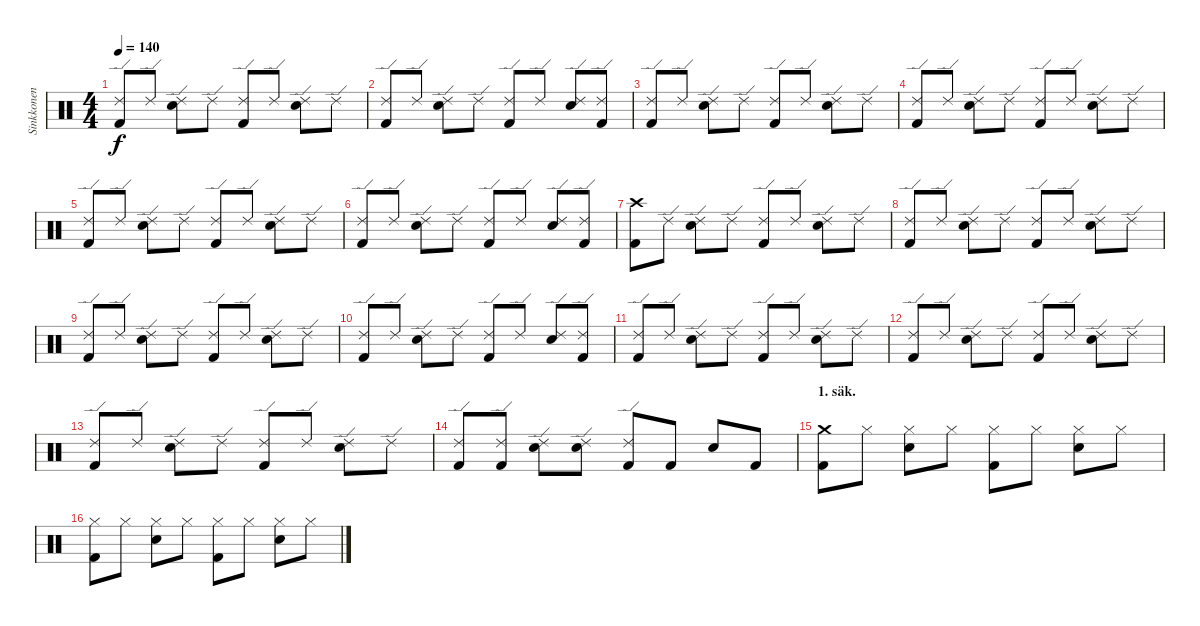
\track ("Sinkkonen" "Sinkkonen") {instrument percussion}
\staff {score}
\articulation defaults
\ts (4 4)
\tempo 140
\clef neutral
\ks c
("Kick (hit) 2" "Ride (edge) 2").8{dy f} "Ride (edge) 2".8 ("Ride (edge) 2" "Snare (hit) 2").8 "Ride (edge) 2".8 ("Kick (hit) 2" "Ride (edge) 2").8 "Ride (edge) 2".8 ("Ride (edge) 2" "Snare (hit) 2").8 "Ride (edge) 2".8 |
("Kick (hit) 2" "Ride (edge) 2").8 "Ride (edge) 2".8 ("Ride (edge) 2" "Snare (hit) 2").8 "Ride (edge) 2".8 ("Kick (hit) 2" "Ride (edge) 2").8 "Ride (edge) 2".8 ("Ride (edge) 2" "Snare (hit) 2").8 ("Kick (hit) 2" "Ride (edge) 2").8 |
("Kick (hit) 2" "Ride (edge) 2").8 "Ride (edge) 2".8 ("Ride (edge) 2" "Snare (hit) 2").8 "Ride (edge) 2".8 ("Kick (hit) 2" "Ride (edge) 2").8 "Ride (edge) 2".8 ("Ride (edge) 2" "Snare (hit) 2").8 "Ride (edge) 2".8 |
("Kick (hit) 2" "Ride (edge) 2").8 "Ride (edge) 2".8 ("Ride (edge) 2" "Snare (hit) 2").8 "Ride (edge) 2".8 ("Kick (hit) 2" "Ride (edge) 2").8 "Ride (edge) 2".8 ("Ride (edge) 2" "Snare (hit) 2").8 "Ride (edge) 2".8 |
("Kick (hit) 2" "Ride (edge) 2").8 "Ride (edge) 2".8 ("Ride (edge) 2" "Snare (hit) 2").8 "Ride (edge) 2".8 ("Kick (hit) 2" "Ride (edge) 2").8 "Ride (edge) 2".8 ("Ride (edge) 2" "Snare (hit) 2").8 "Ride (edge) 2".8 |
("Kick (hit) 2" "Ride (edge) 2").8 "Ride (edge) 2".8 ("Ride (edge) 2" "Snare (hit) 2").8 "Ride (edge) 2".8 ("Kick (hit) 2" "Ride (edge) 2").8 "Ride (edge) 2".8 ("Ride (edge) 2" "Snare (hit) 2").8 ("Kick (hit) 2" "Ride (edge) 2").8 |
("Kick (hit) 2" "Crash high (hit)").8 "Ride (edge) 2".8 ("Ride (edge) 2" "Snare (hit) 2").8 "Ride (edge) 2".8 ("Kick (hit) 2" "Ride (edge) 2").8 "Ride (edge) 2".8 ("Ride (edge) 2" "Snare (hit) 2").8 "Ride (edge) 2".8 |
("Kick (hit) 2" "Ride (edge) 2").8 "Ride (edge) 2".8 ("Ride (edge) 2" "Snare (hit) 2").8 "Ride (edge) 2".8 ("Kick (hit) 2" "Ride (edge) 2").8 "Ride (edge) 2".8 ("Ride (edge) 2" "Snare (hit) 2").8 "Ride (edge) 2".8 |
("Kick (hit) 2" "Ride (edge) 2").8 "Ride (edge) 2".8 ("Ride (edge) 2" "Snare (hit) 2").8 "Ride (edge) 2".8 ("Kick (hit) 2" "Ride (edge) 2").8 "Ride (edge) 2".8 ("Ride (edge) 2" "Snare (hit) 2").8 "Ride (edge) 2".8 |
("Kick (hit) 2" "Ride (edge) 2").8 "Ride (edge) 2".8 ("Ride (edge) 2" "Snare (hit) 2").8 "Ride (edge) 2".8 ("Kick (hit) 2" "Ride (edge) 2").8 "Ride (edge) 2".8 ("Ride (edge) 2" "Snare (hit) 2").8 ("Kick (hit) 2" "Ride (edge) 2").8 |
("Kick (hit) 2" "Ride (edge) 2").8 "Ride (edge) 2".8 ("Ride (edge) 2" "Snare (hit) 2").8 "Ride (edge) 2".8 ("Kick (hit) 2" "Ride (edge) 2").8 "Ride (edge) 2".8 ("Ride (edge) 2" "Snare (hit) 2").8 "Ride (edge) 2".8 |
("Kick (hit) 2" "Ride (edge) 2").8 "Ride (edge) 2".8 ("Ride (edge) 2" "Snare (hit) 2").8 "Ride (edge) 2".8 ("Kick (hit) 2" "Ride (edge) 2").8 "Ride (edge) 2".8 ("Ride (edge) 2" "Snare (hit) 2").8 "Ride (edge) 2".8 |
("Kick (hit) 2" "Ride (edge) 2").8 "Ride (edge) 2".8 ("Ride (edge) 2" "Snare (hit) 2").8 "Ride (edge) 2".8 ("Kick (hit) 2" "Ride (edge) 2").8 "Ride (edge) 2".8 ("Ride (edge) 2" "Snare (hit) 2").8 "Ride (edge) 2".8 |
("Kick (hit) 2" "Ride (edge) 2").8 ("Kick (hit) 2" "Ride (edge) 2").8 ("Ride (edge) 2" "Snare (hit) 2").8 ("Ride (edge) 2" "Snare (hit) 2").8 ("Kick (hit) 2" "Ride (edge) 2").8 "Kick (hit) 2".8 "Snare (hit) 2".8 "Kick (hit) 2".8 |
\section ("" "1. säk.")
("Kick (hit) 2" "Crash medium (hit)").8 "Hi-Hat (closed)".8 ("Hi-Hat (closed)" "Snare (hit) 2").8 "Hi-Hat (closed)".8 ("Kick (hit) 2" "Hi-Hat (closed)").8 "Hi-Hat (closed)".8 ("Hi-Hat (closed)" "Snare (hit) 2").8 "Hi-Hat (closed)".8 |
("Kick (hit) 2" "Hi-Hat (closed)").8 "Hi-Hat (closed)".8 ("Hi-Hat (closed)" "Snare (hit) 2").8 "Hi-Hat (closed)".8 ("Kick (hit) 2" "Hi-Hat (closed)").8 "Hi-Hat (closed)".8 ("Hi-Hat (closed)" "Snare (hit) 2").8 "Hi-Hat (closed)".8
